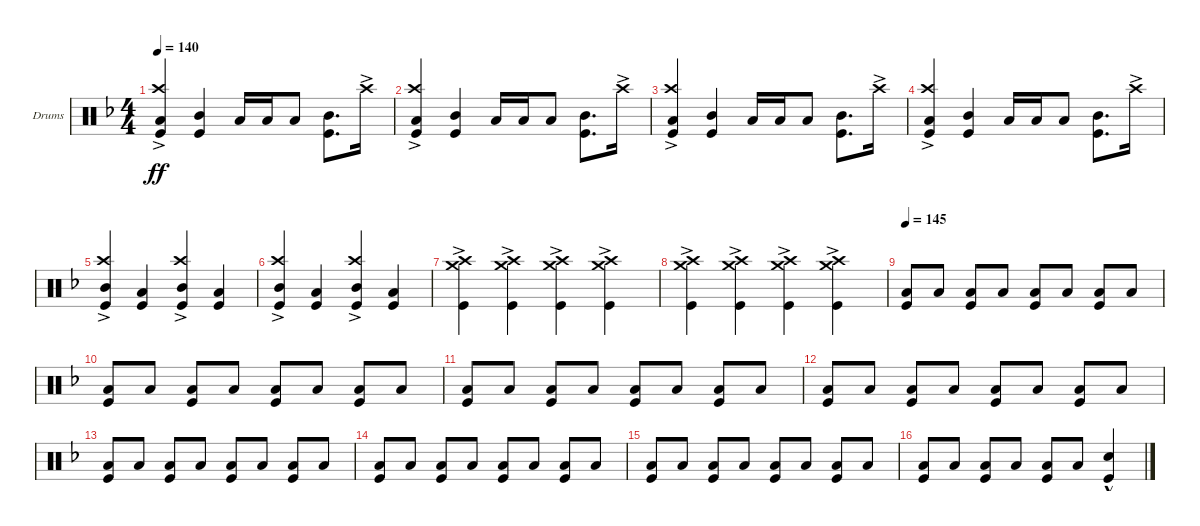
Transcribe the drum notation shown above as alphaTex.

\defaultSystemsLayout 4
\bracketExtendMode groupsimilarinstruments
\firstSystemTrackNameOrientation horizontal
\otherSystemsTrackNameOrientation horizontal
\track ("Drumkit" "Drums") {instrument percussion}
\staff {score}
\articulation defaults
\ts (4 4)
\tempo 140
\clef neutral
\ks f
("Kick (hit)" "Crash high (hit)"{ac} "Low Tom (hit)").4{dy ff} ("Mid Tom (hit)" "Kick (hit)").4 "Low Tom (hit)".16 "Low Tom (hit)".16 "Low Tom (hit)".8 ("Kick (hit)" "Mid Tom (hit)").8{d} "Crash high (hit)"{ac}.16 |
("Kick (hit)" "Crash high (hit)"{ac} "Low Tom (hit)").4 ("Mid Tom (hit)" "Kick (hit)").4 "Low Tom (hit)".16 "Low Tom (hit)".16 "Low Tom (hit)".8 ("Kick (hit)" "Mid Tom (hit)").8{d} "Crash high (hit)"{ac}.16 |
("Kick (hit)" "Crash high (hit)"{ac} "Low Tom (hit)").4 ("Mid Tom (hit)" "Kick (hit)").4 "Low Tom (hit)".16 "Low Tom (hit)".16 "Low Tom (hit)".8 ("Kick (hit)" "Mid Tom (hit)").8{d} "Crash high (hit)"{ac}.16 |
("Kick (hit)" "Crash high (hit)"{ac} "Low Tom (hit)").4 ("Mid Tom (hit)" "Kick (hit)").4 "Low Tom (hit)".16 "Low Tom (hit)".16 "Low Tom (hit)".8 ("Kick (hit)" "Mid Tom (hit)").8{d} "Crash high (hit)"{ac}.16 |
("Kick (hit)" "Mid Tom (hit)" "Crash high (hit)"{ac}).4 ("Kick (hit)" "Low Tom (hit)").4 ("Kick (hit)" "Mid Tom (hit)" "Crash high (hit)"{ac}).4 ("Kick (hit)" "Low Tom (hit)").4 |
("Kick (hit)" "Mid Tom (hit)" "Crash high (hit)"{ac}).4 ("Kick (hit)" "Low Tom (hit)").4 ("Kick (hit)" "Mid Tom (hit)" "Crash high (hit)"{ac}).4 ("Kick (hit)" "Low Tom (hit)").4 |
("Kick (hit)" "Crash high (hit)"{ac} "Crash medium (hit)"{ac}).4 ("Kick (hit)" "Crash high (hit)"{ac} "Crash medium (hit)"{ac}).4 ("Kick (hit)" "Crash high (hit)"{ac} "Crash medium (hit)"{ac}).4 ("Kick (hit)" "Crash high (hit)"{ac} "Crash medium (hit)"{ac}).4 |
("Kick (hit)" "Crash high (hit)"{ac} "Crash medium (hit)"{ac}).4 ("Kick (hit)" "Crash high (hit)"{ac} "Crash medium (hit)"{ac}).4 ("Kick (hit)" "Crash high (hit)"{ac} "Crash medium (hit)"{ac}).4 ("Kick (hit)" "Crash high (hit)"{ac} "Crash medium (hit)"{ac}).4 |
\tempo 145
("Kick (hit)" "Low Tom (hit)").8 "Low Tom (hit)".8 ("Kick (hit)" "Low Tom (hit)").8 "Low Tom (hit)".8 ("Kick (hit)" "Low Tom (hit)").8 "Low Tom (hit)".8 ("Kick (hit)" "Low Tom (hit)").8 "Low Tom (hit)".8 |
("Kick (hit)" "Low Tom (hit)").8 "Low Tom (hit)".8 ("Kick (hit)" "Low Tom (hit)").8 "Low Tom (hit)".8 ("Kick (hit)" "Low Tom (hit)").8 "Low Tom (hit)".8 ("Kick (hit)" "Low Tom (hit)").8 "Low Tom (hit)".8 |
("Kick (hit)" "Low Tom (hit)").8 "Low Tom (hit)".8 ("Kick (hit)" "Low Tom (hit)").8 "Low Tom (hit)".8 ("Kick (hit)" "Low Tom (hit)").8 "Low Tom (hit)".8 ("Kick (hit)" "Low Tom (hit)").8 "Low Tom (hit)".8 |
("Kick (hit)" "Low Tom (hit)").8 "Low Tom (hit)".8 ("Kick (hit)" "Low Tom (hit)").8 "Low Tom (hit)".8 ("Kick (hit)" "Low Tom (hit)").8 "Low Tom (hit)".8 ("Kick (hit)" "Low Tom (hit)").8 "Low Tom (hit)".8 |
("Kick (hit)" "Low Tom (hit)").8 "Low Tom (hit)".8 ("Kick (hit)" "Low Tom (hit)").8 "Low Tom (hit)".8 ("Kick (hit)" "Low Tom (hit)").8 "Low Tom (hit)".8 ("Kick (hit)" "Low Tom (hit)").8 "Low Tom (hit)".8 |
("Kick (hit)" "Low Tom (hit)").8 "Low Tom (hit)".8 ("Kick (hit)" "Low Tom (hit)").8 "Low Tom (hit)".8 ("Kick (hit)" "Low Tom (hit)").8 "Low Tom (hit)".8 ("Kick (hit)" "Low Tom (hit)").8 "Low Tom (hit)".8 |
("Kick (hit)" "Low Tom (hit)").8 "Low Tom (hit)".8 ("Kick (hit)" "Low Tom (hit)").8 "Low Tom (hit)".8 ("Kick (hit)" "Low Tom (hit)").8 "Low Tom (hit)".8 ("Kick (hit)" "Low Tom (hit)").8 "Low Tom (hit)".8 |
("Kick (hit)" "Low Tom (hit)").8 "Low Tom (hit)".8 ("Kick (hit)" "Low Tom (hit)").8 "Low Tom (hit)".8 ("Kick (hit)" "Low Tom (hit)").8 "Low Tom (hit)".8 ("Kick (hit)" "Snare (hit) 2"{hac}).4
